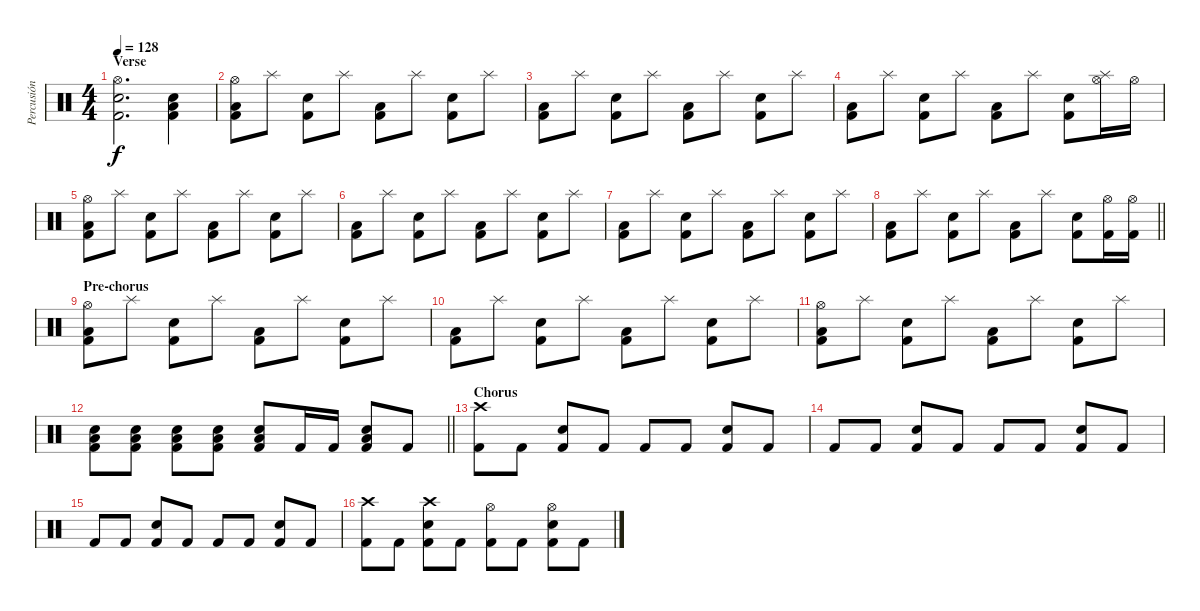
\track ("Percusión" "Percusión") {instrument percussion}
\staff {score}
\articulation defaults
\ts (4 4)
\section ("" "Verse")
\tempo 128
\clef neutral
\ks c
("Hi-Hat (open)" "Snare (hit) 2" "Kick (hit) 2").2{d dy f} ("Low Tom (hit)" "Snare (hit) 2" "Kick (hit) 2").4 |
("Hi-Hat (open)" "Low Floor Tom (hit)" "Kick (hit) 2").8 "Splash (hit)".8 ("Snare (hit) 2" "Kick (hit) 2").8 "Splash (hit)".8 ("Low Floor Tom (hit)" "Kick (hit) 2").8 "Splash (hit)".8 ("Snare (hit) 2" "Kick (hit) 2").8 "Splash (hit)".8 |
("Low Floor Tom (hit)" "Kick (hit) 2").8 "Splash (hit)".8 ("Snare (hit) 2" "Kick (hit) 2").8 "Splash (hit)".8 ("Low Floor Tom (hit)" "Kick (hit) 2").8 "Splash (hit)".8 ("Snare (hit) 2" "Kick (hit) 2").8 "Splash (hit)".8 |
("Low Floor Tom (hit)" "Kick (hit) 2").8 "Splash (hit)".8 ("Snare (hit) 2" "Kick (hit) 2").8 "Splash (hit)".8 ("Low Floor Tom (hit)" "Kick (hit) 2").8 "Splash (hit)".8 ("Snare (hit) 2" "Kick (hit) 2").8 ("Hi-Hat (open)" "Splash (hit)").16 "Hi-Hat (open)".16 |
("Hi-Hat (open)" "Low Floor Tom (hit)" "Kick (hit) 2").8 "Splash (hit)".8 ("Snare (hit) 2" "Kick (hit) 2").8 "Splash (hit)".8 ("Low Floor Tom (hit)" "Kick (hit) 2").8 "Splash (hit)".8 ("Snare (hit) 2" "Kick (hit) 2").8 "Splash (hit)".8 |
("Low Floor Tom (hit)" "Kick (hit) 2").8 "Splash (hit)".8 ("Snare (hit) 2" "Kick (hit) 2").8 "Splash (hit)".8 ("Low Floor Tom (hit)" "Kick (hit) 2").8 "Splash (hit)".8 ("Snare (hit) 2" "Kick (hit) 2").8 "Splash (hit)".8 |
("Low Floor Tom (hit)" "Kick (hit) 2").8 "Splash (hit)".8 ("Snare (hit) 2" "Kick (hit) 2").8 "Splash (hit)".8 ("Low Floor Tom (hit)" "Kick (hit) 2").8 "Splash (hit)".8 ("Snare (hit) 2" "Kick (hit) 2").8 "Splash (hit)".8 |
\barLineRight lightlight
("Low Floor Tom (hit)" "Kick (hit) 2").8 "Splash (hit)".8 ("Snare (hit) 2" "Kick (hit) 2").8 "Splash (hit)".8 ("Low Floor Tom (hit)" "Kick (hit) 2").8 "Splash (hit)".8 ("Snare (hit) 2" "Kick (hit) 2").8 ("Hi-Hat (open)" "Kick (hit) 2").16 ("Hi-Hat (open)" "Kick (hit) 2").16 |
\section ("" "Pre-chorus")
("Hi-Hat (open)" "Low Floor Tom (hit)" "Kick (hit) 2").8 "Splash (hit)".8 ("Snare (hit) 2" "Kick (hit) 2").8 "Splash (hit)".8 ("Low Floor Tom (hit)" "Kick (hit) 2").8 "Splash (hit)".8 ("Snare (hit) 2" "Kick (hit) 2").8 "Splash (hit)".8 |
("Low Floor Tom (hit)" "Kick (hit) 2").8 "Splash (hit)".8 ("Snare (hit) 2" "Kick (hit) 2").8 "Splash (hit)".8 ("Low Floor Tom (hit)" "Kick (hit) 2").8 "Splash (hit)".8 ("Snare (hit) 2" "Kick (hit) 2").8 "Splash (hit)".8 |
("Hi-Hat (open)" "Low Floor Tom (hit)" "Kick (hit) 2").8 "Splash (hit)".8 ("Snare (hit) 2" "Kick (hit) 2").8 "Splash (hit)".8 ("Low Floor Tom (hit)" "Kick (hit) 2").8 "Splash (hit)".8 ("Snare (hit) 2" "Kick (hit) 2").8 "Splash (hit)".8 |
\barLineRight lightlight
("Low Tom (hit)" "Snare (hit) 2" "Kick (hit) 2").8 ("Low Tom (hit)" "Snare (hit) 2" "Kick (hit) 2").8 ("Low Tom (hit)" "Snare (hit) 2" "Kick (hit) 2").8 ("Low Tom (hit)" "Snare (hit) 2" "Kick (hit) 2").8 ("Low Tom (hit)" "Snare (hit) 2" "Kick (hit) 2").8 "Kick (hit) 2".16 "Kick (hit) 2".16 ("Low Tom (hit)" "Snare (hit) 2" "Kick (hit) 2").8 "Kick (hit) 2".8 |
\section ("" "Chorus")
("Crash high (hit)" "Kick (hit) 2").8 "Kick (hit) 2".8 ("Snare (hit) 2" "Kick (hit) 2").8 "Kick (hit) 2".8 "Kick (hit) 2".8 "Kick (hit) 2".8 ("Snare (hit) 2" "Kick (hit) 2").8 "Kick (hit) 2".8 |
"Kick (hit) 2".8 "Kick (hit) 2".8 ("Snare (hit) 2" "Kick (hit) 2").8 "Kick (hit) 2".8 "Kick (hit) 2".8 "Kick (hit) 2".8 ("Snare (hit) 2" "Kick (hit) 2").8 "Kick (hit) 2".8 |
"Kick (hit) 2".8 "Kick (hit) 2".8 ("Snare (hit) 2" "Kick (hit) 2").8 "Kick (hit) 2".8 "Kick (hit) 2".8 "Kick (hit) 2".8 ("Snare (hit) 2" "Kick (hit) 2").8 "Kick (hit) 2".8 |
("Crash high (hit)" "Kick (hit) 2").8 "Kick (hit) 2".8 ("Crash high (hit)" "Snare (hit) 2" "Kick (hit) 2").8 "Kick (hit) 2".8 ("Hi-Hat (open)" "Kick (hit) 2").8 "Kick (hit) 2".8 ("Hi-Hat (open)" "Snare (hit) 2" "Kick (hit) 2").8 "Kick (hit) 2".8
